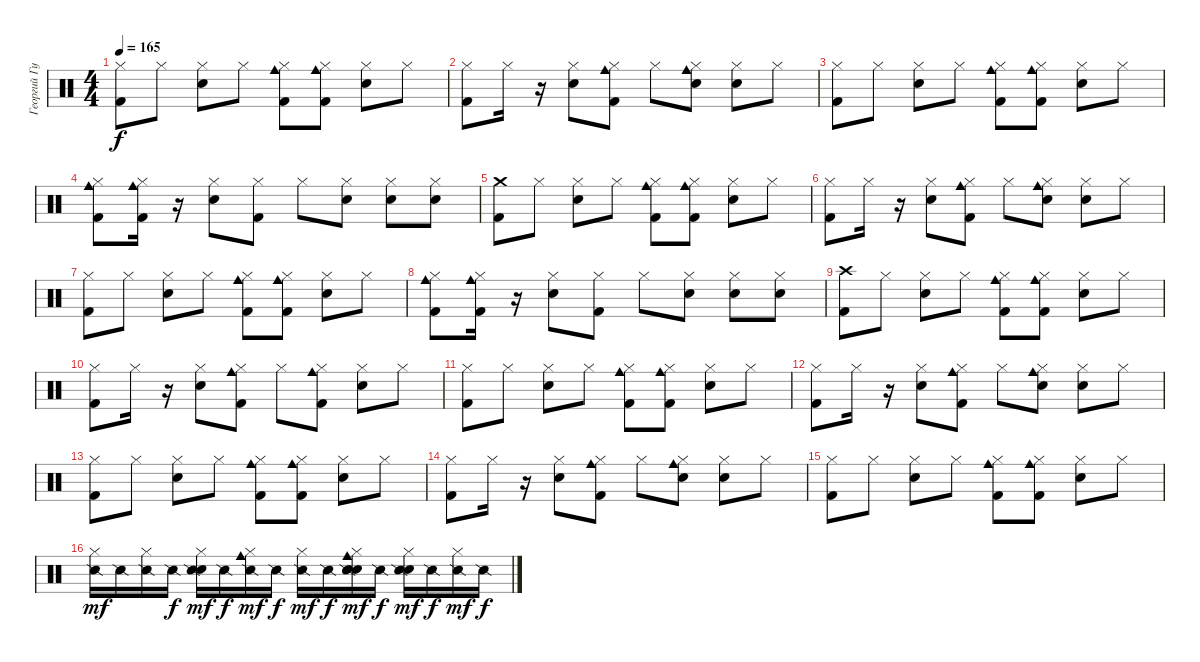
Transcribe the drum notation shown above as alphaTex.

\track ("Георгий Гурьянов" "Георгий Гу") {instrument percussion}
\staff {score}
\articulation defaults
\ts (4 4)
\tempo 165
\clef neutral
\ks c
("Hi-Hat (closed)" "Kick (hit) 2").8{dy f} "Hi-Hat (closed)".8 ("Hi-Hat (closed)" "Snare (hit) 2").8 "Hi-Hat (closed)".8 ("Hi-Hat (closed)" "Cowbell medium (hit)" "Kick (hit) 2").8 ("Hi-Hat (closed)" "Cowbell medium (hit)" "Kick (hit) 2").8 ("Hi-Hat (closed)" "Snare (hit) 2").8 "Hi-Hat (closed)".8 |
("Hi-Hat (closed)" "Kick (hit) 2").8 "Hi-Hat (closed)".16 r.16 ("Hi-Hat (closed)" "Snare (hit) 2").8 ("Hi-Hat (closed)" "Kick (hit) 2" "Cowbell medium (hit)").8 "Hi-Hat (closed)".8 ("Hi-Hat (closed)" "Hand Clap (hit)" "Cowbell medium (hit)").8 ("Hi-Hat (closed)" "Snare (hit) 2").8 "Hi-Hat (closed)".8 |
("Hi-Hat (closed)" "Kick (hit) 2").8 "Hi-Hat (closed)".8 ("Hi-Hat (closed)" "Snare (hit) 2").8 "Hi-Hat (closed)".8 ("Hi-Hat (closed)" "Cowbell medium (hit)" "Kick (hit) 2").8 ("Hi-Hat (closed)" "Cowbell medium (hit)" "Kick (hit) 2").8 ("Hi-Hat (closed)" "Snare (hit) 2").8 "Hi-Hat (closed)".8 |
("Cowbell medium (hit)" "Hi-Hat (closed)" "Kick (hit) 2").8 ("Cowbell medium (hit)" "Kick (hit) 2" "Hi-Hat (closed)").16 r.16 ("Hi-Hat (closed)" "Snare (hit) 2").8 ("Hi-Hat (closed)" "Kick (hit) 2").8 "Hi-Hat (closed)".8 ("Hi-Hat (closed)" "Snare (hit) 2").8 ("Hi-Hat (closed)" "Snare (hit) 2").8 ("Snare (hit) 2" "Hi-Hat (closed)").8 |
("Crash medium (hit)" "Kick (hit) 2").8 "Hi-Hat (closed)".8 ("Hi-Hat (closed)" "Snare (hit) 2").8 "Hi-Hat (closed)".8 ("Hi-Hat (closed)" "Cowbell medium (hit)" "Kick (hit) 2").8 ("Hi-Hat (closed)" "Cowbell medium (hit)" "Kick (hit) 2").8 ("Hi-Hat (closed)" "Snare (hit) 2").8 "Hi-Hat (closed)".8 |
("Hi-Hat (closed)" "Kick (hit) 2").8 "Hi-Hat (closed)".16 r.16 ("Hi-Hat (closed)" "Snare (hit) 2").8 ("Hi-Hat (closed)" "Kick (hit) 2" "Cowbell medium (hit)").8 "Hi-Hat (closed)".8 ("Hi-Hat (closed)" "Hand Clap (hit)" "Cowbell medium (hit)").8 ("Hi-Hat (closed)" "Snare (hit) 2").8 "Hi-Hat (closed)".8 |
("Hi-Hat (closed)" "Kick (hit) 2").8 "Hi-Hat (closed)".8 ("Hi-Hat (closed)" "Snare (hit) 2").8 "Hi-Hat (closed)".8 ("Hi-Hat (closed)" "Cowbell medium (hit)" "Kick (hit) 2").8 ("Hi-Hat (closed)" "Cowbell medium (hit)" "Kick (hit) 2").8 ("Hi-Hat (closed)" "Snare (hit) 2").8 "Hi-Hat (closed)".8 |
("Cowbell medium (hit)" "Hi-Hat (closed)" "Kick (hit) 2").8 ("Cowbell medium (hit)" "Kick (hit) 2" "Hi-Hat (closed)").16 r.16 ("Hi-Hat (closed)" "Snare (hit) 2").8 ("Hi-Hat (closed)" "Kick (hit) 2").8 "Hi-Hat (closed)".8 ("Hi-Hat (closed)" "Snare (hit) 2").8 ("Hi-Hat (closed)" "Snare (hit) 2").8 ("Snare (hit) 2" "Hi-Hat (closed)").8 |
("Crash high (hit)" "Kick (hit) 2").8 "Hi-Hat (closed)".8 ("Hi-Hat (closed)" "Snare (hit) 2").8 "Hi-Hat (closed)".8 ("Hi-Hat (closed)" "Cowbell medium (hit)" "Kick (hit) 2").8 ("Hi-Hat (closed)" "Cowbell medium (hit)" "Kick (hit) 2").8 ("Hi-Hat (closed)" "Snare (hit) 2").8 "Hi-Hat (closed)".8 |
("Hi-Hat (closed)" "Kick (hit) 2").8 "Hi-Hat (closed)".16 r.16 ("Hi-Hat (closed)" "Snare (hit) 2").8 ("Hi-Hat (closed)" "Kick (hit) 2" "Cowbell medium (hit)").8 "Hi-Hat (closed)".8 ("Hi-Hat (closed)" "Kick (hit) 2" "Cowbell medium (hit)").8 ("Hi-Hat (closed)" "Snare (hit) 2").8 "Hi-Hat (closed)".8 |
("Hi-Hat (closed)" "Kick (hit) 2").8 "Hi-Hat (closed)".8 ("Hi-Hat (closed)" "Snare (hit) 2").8 "Hi-Hat (closed)".8 ("Hi-Hat (closed)" "Cowbell medium (hit)" "Kick (hit) 2").8 ("Hi-Hat (closed)" "Cowbell medium (hit)" "Kick (hit) 2").8 ("Hi-Hat (closed)" "Snare (hit) 2").8 "Hi-Hat (closed)".8 |
("Hi-Hat (closed)" "Kick (hit) 2").8 "Hi-Hat (closed)".16 r.16 ("Hi-Hat (closed)" "Snare (hit) 2").8 ("Hi-Hat (closed)" "Kick (hit) 2" "Cowbell medium (hit)").8 "Hi-Hat (closed)".8 ("Hi-Hat (closed)" "Hand Clap (hit)" "Cowbell medium (hit)").8 ("Hi-Hat (closed)" "Snare (hit) 2").8 "Hi-Hat (closed)".8 |
("Hi-Hat (closed)" "Kick (hit) 2").8 "Hi-Hat (closed)".8 ("Hi-Hat (closed)" "Snare (hit) 2").8 "Hi-Hat (closed)".8 ("Hi-Hat (closed)" "Cowbell medium (hit)" "Kick (hit) 2").8 ("Hi-Hat (closed)" "Cowbell medium (hit)" "Kick (hit) 2").8 ("Hi-Hat (closed)" "Snare (hit) 2").8 "Hi-Hat (closed)".8 |
("Hi-Hat (closed)" "Kick (hit) 2").8 "Hi-Hat (closed)".16 r.16 ("Hi-Hat (closed)" "Snare (hit) 2").8 ("Hi-Hat (closed)" "Kick (hit) 2" "Cowbell medium (hit)").8 "Hi-Hat (closed)".8 ("Hi-Hat (closed)" "Hand Clap (hit)" "Cowbell medium (hit)").8 ("Hi-Hat (closed)" "Snare (hit) 2").8 "Hi-Hat (closed)".8 |
("Hi-Hat (closed)" "Kick (hit) 2").8 "Hi-Hat (closed)".8 ("Hi-Hat (closed)" "Snare (hit) 2").8 "Hi-Hat (closed)".8 ("Hi-Hat (closed)" "Cowbell medium (hit)" "Kick (hit) 2").8 ("Hi-Hat (closed)" "Cowbell medium (hit)" "Kick (hit) 2").8 ("Hi-Hat (closed)" "Snare (hit) 2").8 "Hi-Hat (closed)".8 |
("Hi-Hat (closed)" "Snare (side stick) 2").16{dy mf} "Snare (side stick) 2".16 ("Hi-Hat (closed)" "Snare (side stick) 2").16 "Snare (side stick) 2".16{dy f} ("Snare (hit) 2" "Hi-Hat (closed)" "Snare (side stick) 2").16{dy mf} "Snare (side stick) 2".16{dy f} ("Cowbell medium (hit)" "Hi-Hat (closed)" "Snare (side stick) 2").16{dy mf} "Snare (side stick) 2".16{dy f} ("Hi-Hat (closed)" "Snare (side stick) 2").16{dy mf} "Snare (side stick) 2".16{dy f} ("Cowbell medium (hit)" "Hi-Hat (closed)" "Hand Clap (hit)" "Snare (side stick) 2" "Hand Clap (hit)").16{dy mf} "Snare (side stick) 2".16{dy f} ("Hi-Hat (closed)" "Snare (hit) 2" "Snare (side stick) 2").16{dy mf} "Snare (side stick) 2".16{dy f} ("Hi-Hat (closed)" "Snare (side stick) 2").16{dy mf} "Snare (side stick) 2".16{dy f}
